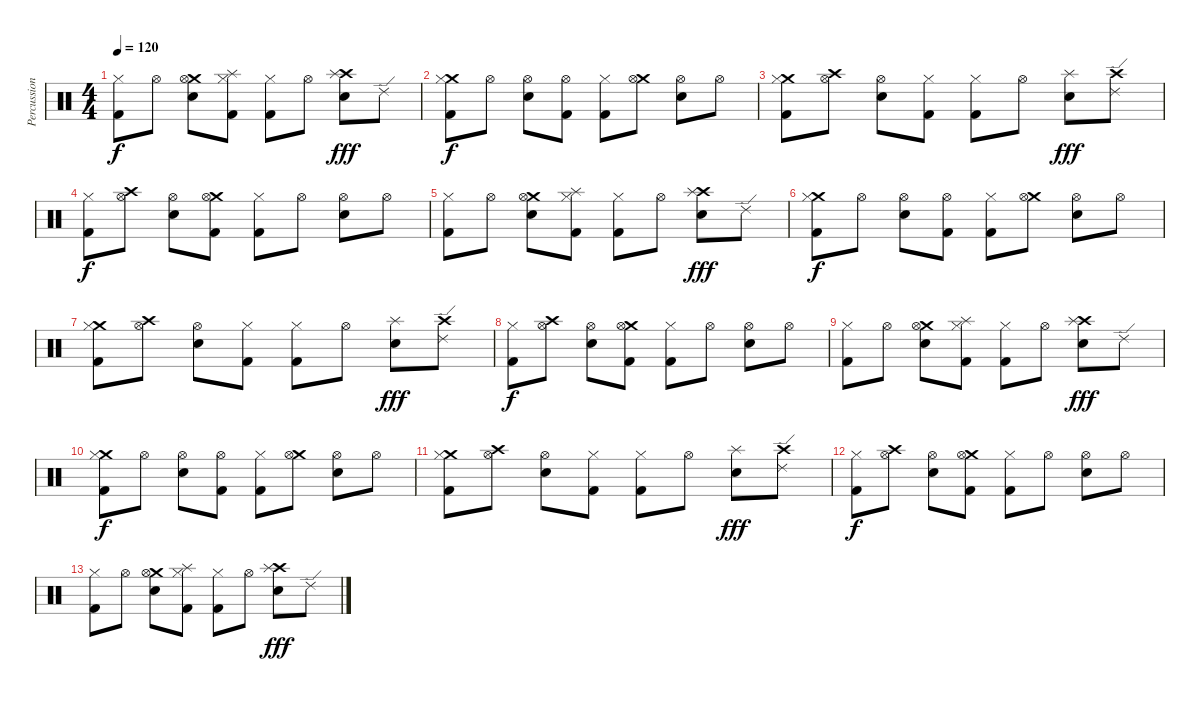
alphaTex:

\track ("Percussion" "Percussion") {instrument percussion}
\staff {score}
\articulation defaults
\ts (4 4)
\tempo 120
\clef neutral
\ks c
("Kick (hit) 2" "Hi-Hat (closed)").8{dy f} "Hi-Hat (open)".8 ("Crash medium (hit)" "Electric Snare (hit)" "Hi-Hat (open)").8 ("Splash (hit)" "Kick (hit) 2" "Hi-Hat (closed)").8 ("Kick (hit) 2" "Hi-Hat (closed)").8 "Hi-Hat (open)".8 ("Crash high (hit)" "Electric Snare (hit)" "Splash (hit)").8{dy fff} "Ride (edge) 2".8 |
("Crash medium (hit)" "Kick (hit) 2" "Hi-Hat (closed)").8{dy f} "Hi-Hat (open)".8 ("Electric Snare (hit)" "Hi-Hat (open)").8 ("Kick (hit) 2" "Hi-Hat (open)").8 ("Kick (hit) 2" "Hi-Hat (closed)").8 ("Crash medium (hit)" "Hi-Hat (open)").8 ("Electric Snare (hit)" "Hi-Hat (open)").8 "Hi-Hat (open)".8 |
("Crash medium (hit)" "Kick (hit) 2" "Hi-Hat (closed)").8 ("Crash high (hit)" "Hi-Hat (open)").8 ("Electric Snare (hit)" "Hi-Hat (open)").8 ("Kick (hit) 2" "Hi-Hat (closed)").8 ("Kick (hit) 2" "Hi-Hat (closed)").8 "Hi-Hat (open)".8 ("Electric Snare (hit)" "Splash (hit)").8{dy fff} ("Crash high (hit)" "Ride (edge) 2").8 |
("Kick (hit) 2" "Hi-Hat (closed)").8{dy f} ("Crash high (hit)" "Hi-Hat (open)").8 ("Electric Snare (hit)" "Hi-Hat (open)").8 ("Crash medium (hit)" "Kick (hit) 2" "Hi-Hat (open)").8 ("Kick (hit) 2" "Hi-Hat (closed)").8 "Hi-Hat (open)".8 ("Electric Snare (hit)" "Hi-Hat (open)").8 "Hi-Hat (open)".8 |
("Kick (hit) 2" "Hi-Hat (closed)").8 "Hi-Hat (open)".8 ("Crash medium (hit)" "Electric Snare (hit)" "Hi-Hat (open)").8 ("Splash (hit)" "Kick (hit) 2" "Hi-Hat (closed)").8 ("Kick (hit) 2" "Hi-Hat (closed)").8 "Hi-Hat (open)".8 ("Crash high (hit)" "Electric Snare (hit)" "Splash (hit)").8{dy fff} "Ride (edge) 2".8 |
("Crash medium (hit)" "Kick (hit) 2" "Hi-Hat (closed)").8{dy f} "Hi-Hat (open)".8 ("Electric Snare (hit)" "Hi-Hat (open)").8 ("Kick (hit) 2" "Hi-Hat (open)").8 ("Kick (hit) 2" "Hi-Hat (closed)").8 ("Crash medium (hit)" "Hi-Hat (open)").8 ("Electric Snare (hit)" "Hi-Hat (open)").8 "Hi-Hat (open)".8 |
("Crash medium (hit)" "Kick (hit) 2" "Hi-Hat (closed)").8 ("Crash high (hit)" "Hi-Hat (open)").8 ("Electric Snare (hit)" "Hi-Hat (open)").8 ("Kick (hit) 2" "Hi-Hat (closed)").8 ("Kick (hit) 2" "Hi-Hat (closed)").8 "Hi-Hat (open)".8 ("Electric Snare (hit)" "Splash (hit)").8{dy fff} ("Crash high (hit)" "Ride (edge) 2").8 |
("Kick (hit) 2" "Hi-Hat (closed)").8{dy f} ("Crash high (hit)" "Hi-Hat (open)").8 ("Electric Snare (hit)" "Hi-Hat (open)").8 ("Crash medium (hit)" "Kick (hit) 2" "Hi-Hat (open)").8 ("Kick (hit) 2" "Hi-Hat (closed)").8 "Hi-Hat (open)".8 ("Electric Snare (hit)" "Hi-Hat (open)").8 "Hi-Hat (open)".8 |
("Kick (hit) 2" "Hi-Hat (closed)").8 "Hi-Hat (open)".8 ("Crash medium (hit)" "Electric Snare (hit)" "Hi-Hat (open)").8 ("Splash (hit)" "Kick (hit) 2" "Hi-Hat (closed)").8 ("Kick (hit) 2" "Hi-Hat (closed)").8 "Hi-Hat (open)".8 ("Crash high (hit)" "Electric Snare (hit)" "Splash (hit)").8{dy fff} "Ride (edge) 2".8 |
("Crash medium (hit)" "Kick (hit) 2" "Hi-Hat (closed)").8{dy f} "Hi-Hat (open)".8 ("Electric Snare (hit)" "Hi-Hat (open)").8 ("Kick (hit) 2" "Hi-Hat (open)").8 ("Kick (hit) 2" "Hi-Hat (closed)").8 ("Crash medium (hit)" "Hi-Hat (open)").8 ("Electric Snare (hit)" "Hi-Hat (open)").8 "Hi-Hat (open)".8 |
("Crash medium (hit)" "Kick (hit) 2" "Hi-Hat (closed)").8 ("Crash high (hit)" "Hi-Hat (open)").8 ("Electric Snare (hit)" "Hi-Hat (open)").8 ("Kick (hit) 2" "Hi-Hat (closed)").8 ("Kick (hit) 2" "Hi-Hat (closed)").8 "Hi-Hat (open)".8 ("Electric Snare (hit)" "Splash (hit)").8{dy fff} ("Crash high (hit)" "Ride (edge) 2").8 |
("Kick (hit) 2" "Hi-Hat (closed)").8{dy f} ("Crash high (hit)" "Hi-Hat (open)").8 ("Electric Snare (hit)" "Hi-Hat (open)").8 ("Crash medium (hit)" "Kick (hit) 2" "Hi-Hat (open)").8 ("Kick (hit) 2" "Hi-Hat (closed)").8 "Hi-Hat (open)".8 ("Electric Snare (hit)" "Hi-Hat (open)").8 "Hi-Hat (open)".8 |
("Kick (hit) 2" "Hi-Hat (closed)").8 "Hi-Hat (open)".8 ("Crash medium (hit)" "Electric Snare (hit)" "Hi-Hat (open)").8 ("Splash (hit)" "Kick (hit) 2" "Hi-Hat (closed)").8 ("Kick (hit) 2" "Hi-Hat (closed)").8 "Hi-Hat (open)".8 ("Crash high (hit)" "Electric Snare (hit)" "Splash (hit)").8{dy fff} "Ride (edge) 2".8
